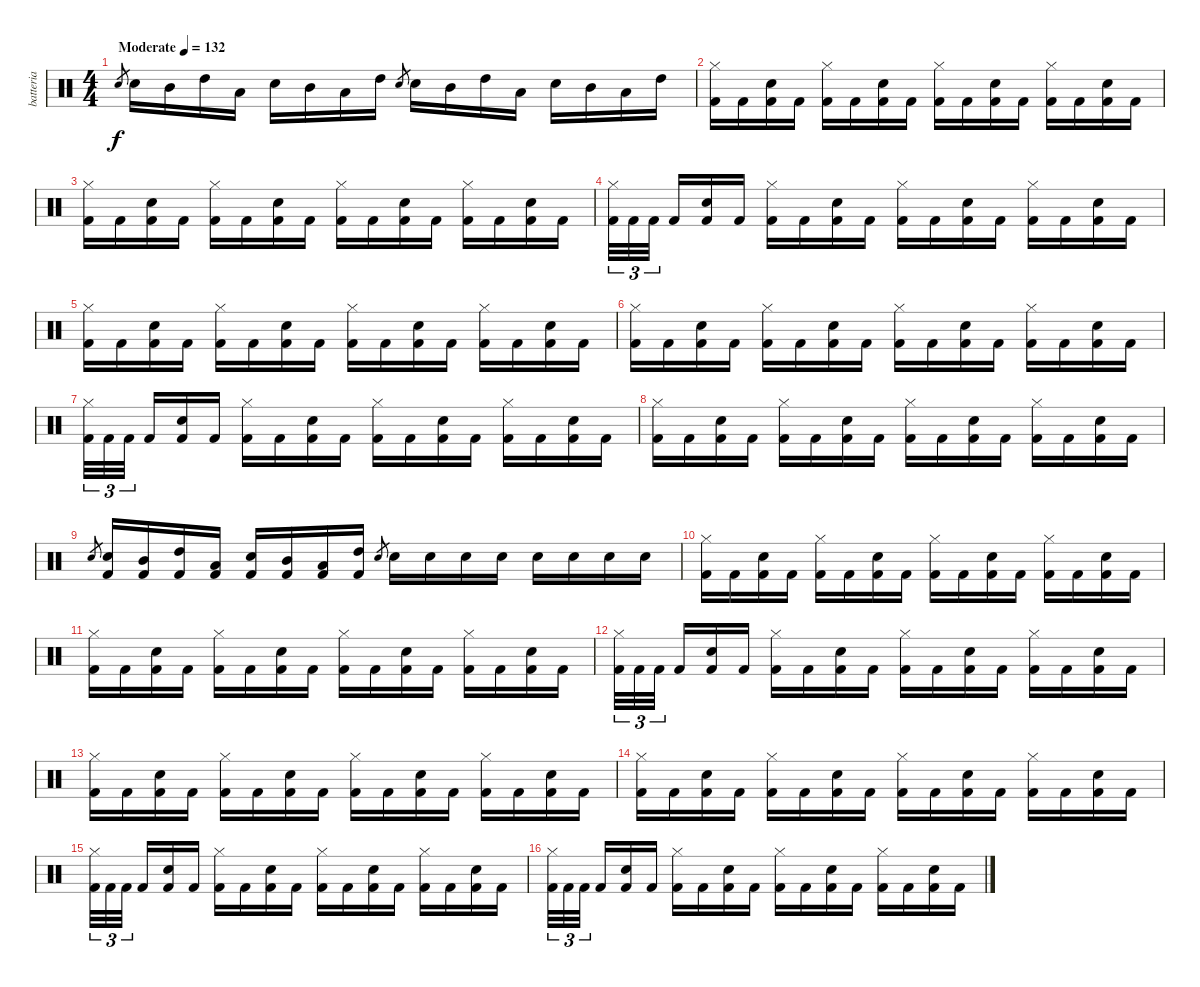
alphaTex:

\track ("batteria" "batteria") {instrument percussion}
\staff {score}
\articulation defaults
\ts (4 4)
\tempo (132 "Moderate")
\clef neutral
\ks c "Snare (hit) 2".8{gr dy f} "Snare (hit) 2".16 "Mid Tom (hit)".16 "High Tom (hit)".16 "Low Tom (hit)".16 "Snare (hit) 2".16 "Mid Tom (hit)".16 "Low Tom (hit)".16 "High Tom (hit)".16 "Snare (hit) 2".8{gr} "Snare (hit) 2".16 "Mid Tom (hit)".16 "High Tom (hit)".16 "Low Tom (hit)".16 "Snare (hit) 2".16 "Mid Tom (hit)".16 "Low Tom (hit)".16 "High Tom (hit)".16
|
("Kick (hit) 2" "Hi-Hat (closed)").16 "Kick (hit) 2".16 ("Kick (hit) 2" "Snare (hit) 2").16 "Kick (hit) 2".16 ("Kick (hit) 2" "Hi-Hat (closed)").16 "Kick (hit) 2".16 ("Kick (hit) 2" "Snare (hit) 2").16 "Kick (hit) 2".16 ("Kick (hit) 2" "Hi-Hat (closed)").16 "Kick (hit) 2".16 ("Kick (hit) 2" "Snare (hit) 2").16 "Kick (hit) 2".16 ("Kick (hit) 2" "Hi-Hat (closed)").16 "Kick (hit) 2".16 ("Kick (hit) 2" "Snare (hit) 2").16 "Kick (hit) 2".16 |
("Kick (hit) 2" "Hi-Hat (closed)").16 "Kick (hit) 2".16 ("Kick (hit) 2" "Snare (hit) 2").16 "Kick (hit) 2".16 ("Kick (hit) 2" "Hi-Hat (closed)").16 "Kick (hit) 2".16 ("Kick (hit) 2" "Snare (hit) 2").16 "Kick (hit) 2".16 ("Kick (hit) 2" "Hi-Hat (closed)").16 "Kick (hit) 2".16 ("Kick (hit) 2" "Snare (hit) 2").16 "Kick (hit) 2".16 ("Kick (hit) 2" "Hi-Hat (closed)").16 "Kick (hit) 2".16 ("Kick (hit) 2" "Snare (hit) 2").16 "Kick (hit) 2".16 |
("Kick (hit) 2" "Hi-Hat (closed)").32{tu (3 2)} "Kick (hit) 2".32{tu (3 2)} "Kick (hit) 2".32{tu (3 2) beam splitsecondary} "Kick (hit) 2".16 ("Kick (hit) 2" "Snare (hit) 2").16 "Kick (hit) 2".16 ("Kick (hit) 2" "Hi-Hat (closed)").16 "Kick (hit) 2".16 ("Kick (hit) 2" "Snare (hit) 2").16 "Kick (hit) 2".16 ("Kick (hit) 2" "Hi-Hat (closed)").16 "Kick (hit) 2".16 ("Kick (hit) 2" "Snare (hit) 2").16 "Kick (hit) 2".16 ("Kick (hit) 2" "Hi-Hat (closed)").16 "Kick (hit) 2".16 ("Kick (hit) 2" "Snare (hit) 2").16 "Kick (hit) 2".16 |
("Kick (hit) 2" "Hi-Hat (closed)").16 "Kick (hit) 2".16 ("Kick (hit) 2" "Snare (hit) 2").16 "Kick (hit) 2".16 ("Kick (hit) 2" "Hi-Hat (closed)").16 "Kick (hit) 2".16 ("Kick (hit) 2" "Snare (hit) 2").16 "Kick (hit) 2".16 ("Kick (hit) 2" "Hi-Hat (closed)").16 "Kick (hit) 2".16 ("Kick (hit) 2" "Snare (hit) 2").16 "Kick (hit) 2".16 ("Kick (hit) 2" "Hi-Hat (closed)").16 "Kick (hit) 2".16 ("Kick (hit) 2" "Snare (hit) 2").16 "Kick (hit) 2".16 |
("Kick (hit) 2" "Hi-Hat (closed)").16 "Kick (hit) 2".16 ("Kick (hit) 2" "Snare (hit) 2").16 "Kick (hit) 2".16 ("Kick (hit) 2" "Hi-Hat (closed)").16 "Kick (hit) 2".16 ("Kick (hit) 2" "Snare (hit) 2").16 "Kick (hit) 2".16 ("Kick (hit) 2" "Hi-Hat (closed)").16 "Kick (hit) 2".16 ("Kick (hit) 2" "Snare (hit) 2").16 "Kick (hit) 2".16 ("Kick (hit) 2" "Hi-Hat (closed)").16 "Kick (hit) 2".16 ("Kick (hit) 2" "Snare (hit) 2").16 "Kick (hit) 2".16 |
("Kick (hit) 2" "Hi-Hat (closed)").32{tu (3 2)} "Kick (hit) 2".32{tu (3 2)} "Kick (hit) 2".32{tu (3 2) beam splitsecondary} "Kick (hit) 2".16 ("Kick (hit) 2" "Snare (hit) 2").16 "Kick (hit) 2".16 ("Kick (hit) 2" "Hi-Hat (closed)").16 "Kick (hit) 2".16 ("Kick (hit) 2" "Snare (hit) 2").16 "Kick (hit) 2".16 ("Kick (hit) 2" "Hi-Hat (closed)").16 "Kick (hit) 2".16 ("Kick (hit) 2" "Snare (hit) 2").16 "Kick (hit) 2".16 ("Kick (hit) 2" "Hi-Hat (closed)").16 "Kick (hit) 2".16 ("Kick (hit) 2" "Snare (hit) 2").16 "Kick (hit) 2".16 |
("Kick (hit) 2" "Hi-Hat (closed)").16 "Kick (hit) 2".16 ("Kick (hit) 2" "Snare (hit) 2").16 "Kick (hit) 2".16 ("Kick (hit) 2" "Hi-Hat (closed)").16 "Kick (hit) 2".16 ("Kick (hit) 2" "Snare (hit) 2").16 "Kick (hit) 2".16 ("Kick (hit) 2" "Hi-Hat (closed)").16 "Kick (hit) 2".16 ("Kick (hit) 2" "Snare (hit) 2").16 "Kick (hit) 2".16 ("Kick (hit) 2" "Hi-Hat (closed)").16 "Kick (hit) 2".16 ("Kick (hit) 2" "Snare (hit) 2").16 "Kick (hit) 2".16 |
"Snare (hit) 2".8{gr} ("Snare (hit) 2" "Kick (hit) 2").16 ("Kick (hit) 2" "Mid Tom (hit)").16 ("Kick (hit) 2" "High Tom (hit)").16 ("Kick (hit) 2" "Low Tom (hit)").16 ("Snare (hit) 2" "Kick (hit) 2").16 ("Kick (hit) 2" "Mid Tom (hit)").16 ("Kick (hit) 2" "Low Tom (hit)").16 ("Kick (hit) 2" "High Tom (hit)").16 "Snare (hit) 2".8{gr} "Snare (hit) 2".16 "Snare (hit) 2".16 "Snare (hit) 2".16 "Snare (hit) 2".16 "Snare (hit) 2".16 "Snare (hit) 2".16 "Snare (hit) 2".16 "Snare (hit) 2".16 |
("Kick (hit) 2" "Hi-Hat (closed)").16 "Kick (hit) 2".16 ("Kick (hit) 2" "Snare (hit) 2").16 "Kick (hit) 2".16 ("Kick (hit) 2" "Hi-Hat (closed)").16 "Kick (hit) 2".16 ("Kick (hit) 2" "Snare (hit) 2").16 "Kick (hit) 2".16 ("Kick (hit) 2" "Hi-Hat (closed)").16 "Kick (hit) 2".16 ("Kick (hit) 2" "Snare (hit) 2").16 "Kick (hit) 2".16 ("Kick (hit) 2" "Hi-Hat (closed)").16 "Kick (hit) 2".16 ("Kick (hit) 2" "Snare (hit) 2").16 "Kick (hit) 2".16 |
("Kick (hit) 2" "Hi-Hat (closed)").16 "Kick (hit) 2".16 ("Kick (hit) 2" "Snare (hit) 2").16 "Kick (hit) 2".16 ("Kick (hit) 2" "Hi-Hat (closed)").16 "Kick (hit) 2".16 ("Kick (hit) 2" "Snare (hit) 2").16 "Kick (hit) 2".16 ("Kick (hit) 2" "Hi-Hat (closed)").16 "Kick (hit) 2".16 ("Kick (hit) 2" "Snare (hit) 2").16 "Kick (hit) 2".16 ("Kick (hit) 2" "Hi-Hat (closed)").16 "Kick (hit) 2".16 ("Kick (hit) 2" "Snare (hit) 2").16 "Kick (hit) 2".16 |
("Kick (hit) 2" "Hi-Hat (closed)").32{tu (3 2)} "Kick (hit) 2".32{tu (3 2)} "Kick (hit) 2".32{tu (3 2) beam splitsecondary} "Kick (hit) 2".16 ("Kick (hit) 2" "Snare (hit) 2").16 "Kick (hit) 2".16 ("Kick (hit) 2" "Hi-Hat (closed)").16 "Kick (hit) 2".16 ("Kick (hit) 2" "Snare (hit) 2").16 "Kick (hit) 2".16 ("Kick (hit) 2" "Hi-Hat (closed)").16 "Kick (hit) 2".16 ("Kick (hit) 2" "Snare (hit) 2").16 "Kick (hit) 2".16 ("Kick (hit) 2" "Hi-Hat (closed)").16 "Kick (hit) 2".16 ("Kick (hit) 2" "Snare (hit) 2").16 "Kick (hit) 2".16 |
("Kick (hit) 2" "Hi-Hat (closed)").16 "Kick (hit) 2".16 ("Kick (hit) 2" "Snare (hit) 2").16 "Kick (hit) 2".16 ("Kick (hit) 2" "Hi-Hat (closed)").16 "Kick (hit) 2".16 ("Kick (hit) 2" "Snare (hit) 2").16 "Kick (hit) 2".16 ("Kick (hit) 2" "Hi-Hat (closed)").16 "Kick (hit) 2".16 ("Kick (hit) 2" "Snare (hit) 2").16 "Kick (hit) 2".16 ("Kick (hit) 2" "Hi-Hat (closed)").16 "Kick (hit) 2".16 ("Kick (hit) 2" "Snare (hit) 2").16 "Kick (hit) 2".16 |
("Kick (hit) 2" "Hi-Hat (closed)").16 "Kick (hit) 2".16 ("Kick (hit) 2" "Snare (hit) 2").16 "Kick (hit) 2".16 ("Kick (hit) 2" "Hi-Hat (closed)").16 "Kick (hit) 2".16 ("Kick (hit) 2" "Snare (hit) 2").16 "Kick (hit) 2".16 ("Kick (hit) 2" "Hi-Hat (closed)").16 "Kick (hit) 2".16 ("Kick (hit) 2" "Snare (hit) 2").16 "Kick (hit) 2".16 ("Kick (hit) 2" "Hi-Hat (closed)").16 "Kick (hit) 2".16 ("Kick (hit) 2" "Snare (hit) 2").16 "Kick (hit) 2".16 |
("Kick (hit) 2" "Hi-Hat (closed)").32{tu (3 2)} "Kick (hit) 2".32{tu (3 2)} "Kick (hit) 2".32{tu (3 2) beam splitsecondary} "Kick (hit) 2".16 ("Kick (hit) 2" "Snare (hit) 2").16 "Kick (hit) 2".16 ("Kick (hit) 2" "Hi-Hat (closed)").16 "Kick (hit) 2".16 ("Kick (hit) 2" "Snare (hit) 2").16 "Kick (hit) 2".16 ("Kick (hit) 2" "Hi-Hat (closed)").16 "Kick (hit) 2".16 ("Kick (hit) 2" "Snare (hit) 2").16 "Kick (hit) 2".16 ("Kick (hit) 2" "Hi-Hat (closed)").16 "Kick (hit) 2".16 ("Kick (hit) 2" "Snare (hit) 2").16 "Kick (hit) 2".16 |
("Kick (hit) 2" "Hi-Hat (closed)").32{tu (3 2)} "Kick (hit) 2".32{tu (3 2)} "Kick (hit) 2".32{tu (3 2) beam splitsecondary} "Kick (hit) 2".16 ("Kick (hit) 2" "Snare (hit) 2").16 "Kick (hit) 2".16 ("Kick (hit) 2" "Hi-Hat (closed)").16 "Kick (hit) 2".16 ("Kick (hit) 2" "Snare (hit) 2").16 "Kick (hit) 2".16 ("Kick (hit) 2" "Hi-Hat (closed)").16 "Kick (hit) 2".16 ("Kick (hit) 2" "Snare (hit) 2").16 "Kick (hit) 2".16 ("Kick (hit) 2" "Hi-Hat (closed)").16 "Kick (hit) 2".16 ("Kick (hit) 2" "Snare (hit) 2").16 "Kick (hit) 2".16
